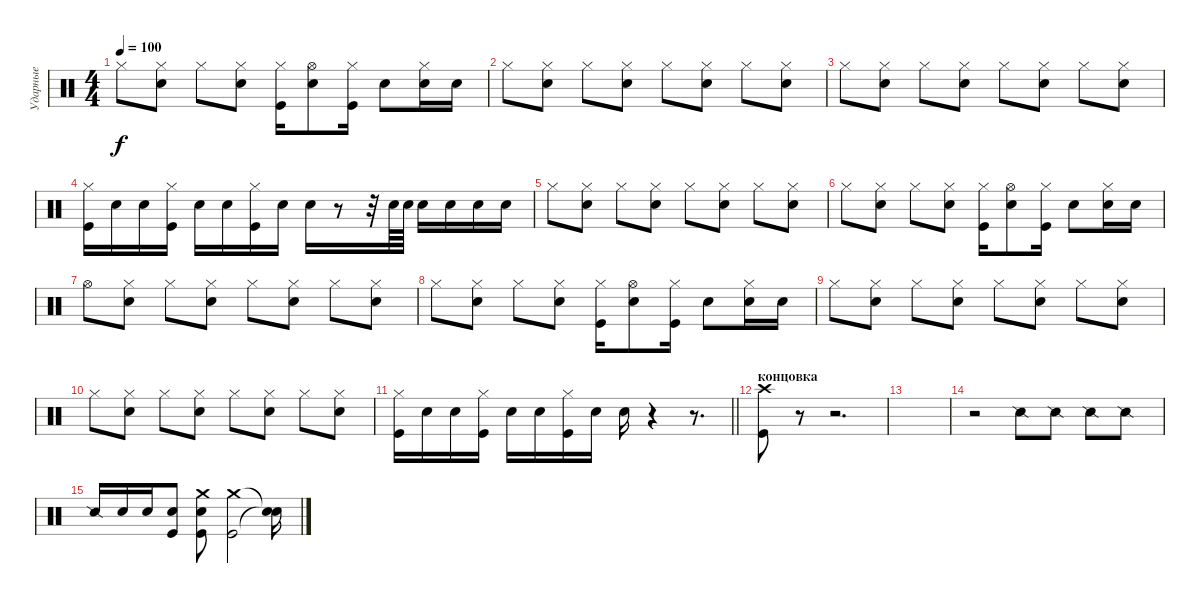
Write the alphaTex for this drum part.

\track ("Ударные" "Ударные") {instrument percussion}
\staff {score}
\articulation defaults
\ts (4 4)
\tempo 100
\clef neutral
\ks c "Hi-Hat (closed)".8{dy f}
("Hi-Hat (closed)" "Snare (hit) 2").8 "Hi-Hat (closed)".8 ("Hi-Hat (closed)" "Snare (hit) 2").8 ("Hi-Hat (closed)" "Kick (hit)").16 ("Hi-Hat (open)" "Electric Snare (hit)").8 ("Hi-Hat (closed)" "Kick (hit)").16 "Electric Snare (hit)".8 ("Hi-Hat (closed)" "Electric Snare (hit)").16 "Electric Snare (hit)".16 |
"Hi-Hat (closed)".8 ("Hi-Hat (closed)" "Snare (hit) 2").8 "Hi-Hat (closed)".8 ("Hi-Hat (closed)" "Snare (hit) 2").8 "Hi-Hat (closed)".8 ("Hi-Hat (closed)" "Snare (hit) 2").8 "Hi-Hat (closed)".8 ("Hi-Hat (closed)" "Snare (hit) 2").8 |
"Hi-Hat (closed)".8 ("Hi-Hat (closed)" "Snare (hit) 2").8 "Hi-Hat (closed)".8 ("Hi-Hat (closed)" "Snare (hit) 2").8 "Hi-Hat (closed)".8 ("Hi-Hat (closed)" "Snare (hit) 2").8 "Hi-Hat (closed)".8 ("Hi-Hat (closed)" "Snare (hit) 2").8 |
("Hi-Hat (closed)" "Kick (hit)").16 "Electric Snare (hit)".16 "Electric Snare (hit)".16 ("Hi-Hat (closed)" "Kick (hit)").16 "Electric Snare (hit)".16 "Electric Snare (hit)".16 ("Hi-Hat (closed)" "Kick (hit)").16 "Electric Snare (hit)".16 "Electric Snare (hit)".16 r.8 r.32 "Electric Snare (hit)".64 "Electric Snare (hit)".64 "Electric Snare (hit)".16 "Electric Snare (hit)".16 "Electric Snare (hit)".16 "Electric Snare (hit)".16 |
"Hi-Hat (closed)".8 ("Hi-Hat (closed)" "Snare (hit) 2").8 "Hi-Hat (closed)".8 ("Hi-Hat (closed)" "Snare (hit) 2").8 "Hi-Hat (closed)".8 ("Hi-Hat (closed)" "Snare (hit) 2").8 "Hi-Hat (closed)".8 ("Hi-Hat (closed)" "Snare (hit) 2").8 |
"Hi-Hat (closed)".8 ("Hi-Hat (closed)" "Snare (hit) 2").8 "Hi-Hat (closed)".8 ("Hi-Hat (closed)" "Snare (hit) 2").8 ("Hi-Hat (closed)" "Kick (hit)").16 ("Hi-Hat (open)" "Electric Snare (hit)").8 ("Hi-Hat (closed)" "Kick (hit)").16 "Electric Snare (hit)".8 ("Hi-Hat (closed)" "Electric Snare (hit)").16 "Electric Snare (hit)".16 |
"Hi-Hat (open)".8 ("Hi-Hat (closed)" "Snare (hit) 2").8 "Hi-Hat (closed)".8 ("Hi-Hat (closed)" "Snare (hit) 2").8 "Hi-Hat (closed)".8 ("Hi-Hat (closed)" "Snare (hit) 2").8 "Hi-Hat (closed)".8 ("Hi-Hat (closed)" "Snare (hit) 2").8 |
"Hi-Hat (closed)".8 ("Hi-Hat (closed)" "Snare (hit) 2").8 "Hi-Hat (closed)".8 ("Hi-Hat (closed)" "Snare (hit) 2").8 ("Hi-Hat (closed)" "Kick (hit)").16 ("Hi-Hat (open)" "Electric Snare (hit)").8 ("Hi-Hat (closed)" "Kick (hit)").16 "Electric Snare (hit)".8 ("Hi-Hat (closed)" "Electric Snare (hit)").16 "Electric Snare (hit)".16 |
"Hi-Hat (closed)".8 ("Hi-Hat (closed)" "Snare (hit) 2").8 "Hi-Hat (closed)".8 ("Hi-Hat (closed)" "Snare (hit) 2").8 "Hi-Hat (closed)".8 ("Hi-Hat (closed)" "Snare (hit) 2").8 "Hi-Hat (closed)".8 ("Hi-Hat (closed)" "Snare (hit) 2").8 |
"Hi-Hat (closed)".8 ("Hi-Hat (closed)" "Snare (hit) 2").8 "Hi-Hat (closed)".8 ("Hi-Hat (closed)" "Snare (hit) 2").8 "Hi-Hat (closed)".8 ("Hi-Hat (closed)" "Snare (hit) 2").8 "Hi-Hat (closed)".8 ("Hi-Hat (closed)" "Snare (hit) 2").8 |
\barLineRight lightlight
("Hi-Hat (closed)" "Kick (hit)").16 "Electric Snare (hit)".16 "Electric Snare (hit)".16 ("Hi-Hat (closed)" "Kick (hit)").16 "Electric Snare (hit)".16 "Electric Snare (hit)".16 ("Hi-Hat (closed)" "Kick (hit)").16 "Electric Snare (hit)".16 "Electric Snare (hit)".16 r.4 r.8{d} |
\section ("" "концовка")
("Kick (hit)" "Crash high (hit)").8 r.8 r.2{d} |
|
r.2 "Snare (side stick) 2".8 "Snare (side stick) 2".8 "Snare (side stick) 2".8 "Snare (side stick) 2".8 |
"Snare (side stick) 2".16 "Electric Snare (hit)".16 "Electric Snare (hit)".16 ("Electric Snare (hit)" "Kick (hit)").8 ("Electric Snare (hit)" "Kick (hit)" "Crash medium (hit)").8 ("Kick (hit)" "Crash medium (hit)").2 ("Snare (hit)"{t} "Snare (hit)"{t}).16
